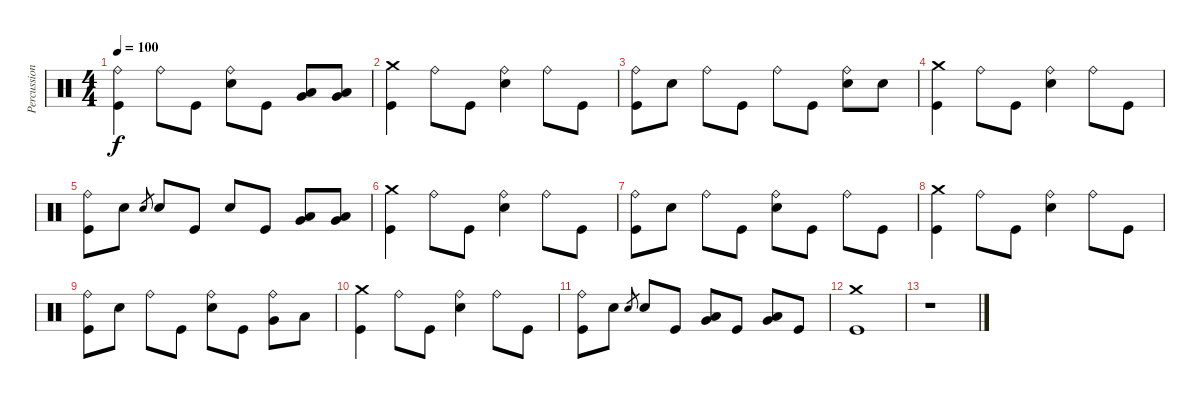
\track ("Percussions" "Percussion") {instrument percussion}
\staff {score}
\articulation defaults
\ts (4 4)
\tempo 100
\clef neutral
\ks c
("Kick (hit)" "Ride (bell)").4{dy f} "Ride (bell)".8 "Kick (hit)".8 ("Electric Snare (hit)" "Ride (bell)").8 "Kick (hit)".8 ("Low Tom (hit)" "Very Low Tom (hit)").8 ("Low Tom (hit)" "Very Low Tom (hit)").8 |
("Kick (hit)" "Crash medium (hit)").4 "Ride (bell)".8 "Kick (hit)".8 ("Electric Snare (hit)" "Ride (bell)").4 "Ride (bell)".8 "Kick (hit)".8 |
("Kick (hit)" "Ride (bell)").8 "Electric Snare (hit)".8 "Ride (bell)".8 "Kick (hit)".8 "Ride (bell)".8 "Kick (hit)".8 ("Electric Snare (hit)" "Ride (bell)").8 "Electric Snare (hit)".8 |
("Kick (hit)" "Crash medium (hit)").4 "Ride (bell)".8 "Kick (hit)".8 ("Electric Snare (hit)" "Ride (bell)").4 "Ride (bell)".8 "Kick (hit)".8 |
("Kick (hit)" "Ride (bell)").8 "Electric Snare (hit)".8 "Electric Snare (hit)".8{gr} "Electric Snare (hit)".8 "Kick (hit)".8 "Electric Snare (hit)".8 "Kick (hit)".8 ("Low Tom (hit)" "Very Low Tom (hit)").8 ("Low Tom (hit)" "Very Low Tom (hit)").8 |
("Kick (hit)" "Crash medium (hit)").4 "Ride (bell)".8 "Kick (hit)".8 ("Electric Snare (hit)" "Ride (bell)").4 "Ride (bell)".8 "Kick (hit)".8 |
("Kick (hit)" "Ride (bell)").8 "Electric Snare (hit)".8 "Ride (bell)".8 "Kick (hit)".8 ("Electric Snare (hit)" "Ride (bell)").8 "Kick (hit)".8 "Ride (bell)".8 "Kick (hit)".8 |
("Kick (hit)" "Crash medium (hit)").4 "Ride (bell)".8 "Kick (hit)".8 ("Electric Snare (hit)" "Ride (bell)").4 "Ride (bell)".8 "Kick (hit)".8 |
("Kick (hit)" "Ride (bell)").8 "Electric Snare (hit)".8 "Ride (bell)".8 "Kick (hit)".8 ("Electric Snare (hit)" "Ride (bell)").8 "Kick (hit)".8 ("Very Low Tom (hit)" "Ride (bell)").8 "Low Tom (hit)".8 |
("Kick (hit)" "Crash medium (hit)").4 "Ride (bell)".8 "Kick (hit)".8 ("Electric Snare (hit)" "Ride (bell)").4 "Ride (bell)".8 "Kick (hit)".8 |
("Kick (hit)" "Ride (bell)").8 "Electric Snare (hit)".8 "Electric Snare (hit)".8{gr} "Electric Snare (hit)".8 "Kick (hit)".8 ("Low Tom (hit)" "Very Low Tom (hit)").8 "Kick (hit)".8 ("Very Low Tom (hit)" "Low Floor Tom (hit)").8 "Kick (hit)".8 |
("Kick (hit)" "Crash medium (hit)").1 |
r.1
